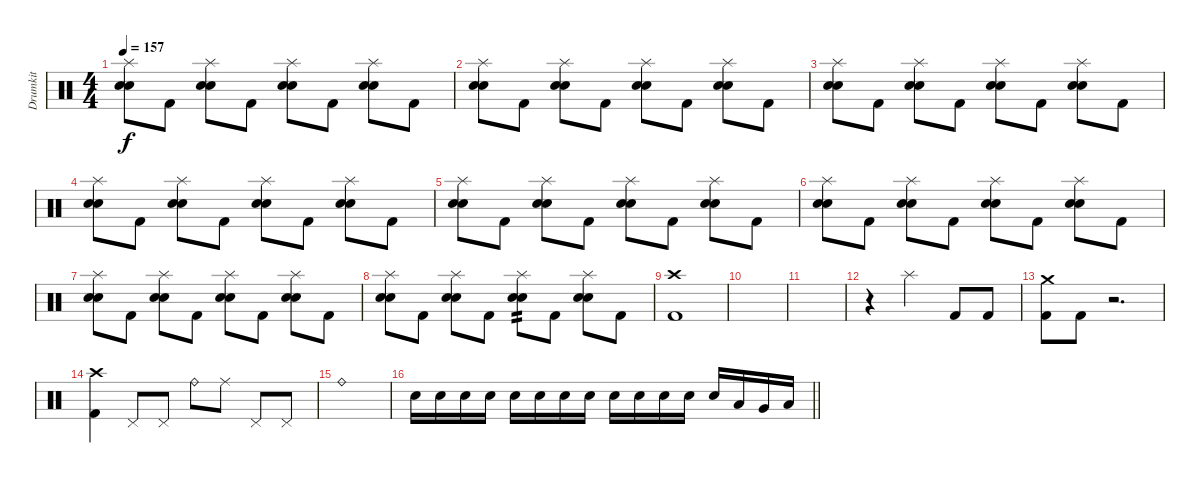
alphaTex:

\track ("Drumkit" "Drumkit") {instrument percussion}
\staff {score}
\articulation defaults
\ts (4 4)
\tempo 157
\clef neutral
\ks c
("Splash (hit)" "Electric Snare (hit)" "Snare (hit) 2").8{dy f} "Kick (hit) 2".8 ("Splash (hit)" "Electric Snare (hit)" "Snare (hit) 2").8 "Kick (hit) 2".8 ("Splash (hit)" "Electric Snare (hit)" "Snare (hit) 2").8 "Kick (hit) 2".8 ("Splash (hit)" "Electric Snare (hit)" "Snare (hit) 2").8 "Kick (hit) 2".8 |
("Splash (hit)" "Electric Snare (hit)" "Snare (hit) 2").8 "Kick (hit) 2".8 ("Splash (hit)" "Electric Snare (hit)" "Snare (hit) 2").8 "Kick (hit) 2".8 ("Splash (hit)" "Electric Snare (hit)" "Snare (hit) 2").8 "Kick (hit) 2".8 ("Splash (hit)" "Electric Snare (hit)" "Snare (hit) 2").8 "Kick (hit) 2".8 |
("Splash (hit)" "Electric Snare (hit)" "Snare (hit) 2").8 "Kick (hit) 2".8 ("Splash (hit)" "Electric Snare (hit)" "Snare (hit) 2").8 "Kick (hit) 2".8 ("Splash (hit)" "Electric Snare (hit)" "Snare (hit) 2").8 "Kick (hit) 2".8 ("Splash (hit)" "Electric Snare (hit)" "Snare (hit) 2").8 "Kick (hit) 2".8 |
("Splash (hit)" "Electric Snare (hit)" "Snare (hit) 2").8 "Kick (hit) 2".8 ("Splash (hit)" "Electric Snare (hit)" "Snare (hit) 2").8 "Kick (hit) 2".8 ("Splash (hit)" "Electric Snare (hit)" "Snare (hit) 2").8 "Kick (hit) 2".8 ("Splash (hit)" "Electric Snare (hit)" "Snare (hit) 2").8 "Kick (hit) 2".8 |
("Splash (hit)" "Electric Snare (hit)" "Snare (hit) 2").8 "Kick (hit) 2".8 ("Splash (hit)" "Electric Snare (hit)" "Snare (hit) 2").8 "Kick (hit) 2".8 ("Splash (hit)" "Electric Snare (hit)" "Snare (hit) 2").8 "Kick (hit) 2".8 ("Splash (hit)" "Electric Snare (hit)" "Snare (hit) 2").8 "Kick (hit) 2".8 |
("Splash (hit)" "Electric Snare (hit)" "Snare (hit) 2").8 "Kick (hit) 2".8 ("Splash (hit)" "Electric Snare (hit)" "Snare (hit) 2").8 "Kick (hit) 2".8 ("Splash (hit)" "Electric Snare (hit)" "Snare (hit) 2").8 "Kick (hit) 2".8 ("Splash (hit)" "Electric Snare (hit)" "Snare (hit) 2").8 "Kick (hit) 2".8 |
("Splash (hit)" "Electric Snare (hit)" "Snare (hit) 2").8 "Kick (hit) 2".8 ("Splash (hit)" "Electric Snare (hit)" "Snare (hit) 2").8 "Kick (hit) 2".8 ("Splash (hit)" "Electric Snare (hit)" "Snare (hit) 2").8 "Kick (hit) 2".8 ("Splash (hit)" "Electric Snare (hit)" "Snare (hit) 2").8 "Kick (hit) 2".8 |
("Splash (hit)" "Electric Snare (hit)" "Snare (hit) 2").8 "Kick (hit) 2".8 ("Splash (hit)" "Electric Snare (hit)" "Snare (hit) 2").8 "Kick (hit) 2".8 ("Splash (hit)" "Electric Snare (hit)" "Snare (hit) 2").8{tp 2} "Kick (hit) 2".8 ("Splash (hit)" "Electric Snare (hit)" "Snare (hit) 2").8 "Kick (hit) 2".8 |
("Crash high (hit)" "Kick (hit) 2").1 |
|
|
r.4 "Splash (hit)".2 "Kick (hit) 2".8 "Kick (hit) 2".8 |
("Crash medium (hit)" "Kick (hit) 2").8 "Kick (hit) 2".8 r.2{d} |
("Crash high (hit)" "Kick (hit) 2").4 "Pedal Hi-Hat (hit)".8 "Pedal Hi-Hat (hit)".8 "Ride (bell)".8 "Ride (middle)".8 "Pedal Hi-Hat (hit)".8 "Pedal Hi-Hat (hit)".8 |
"Ride (bell)".1 |
\barLineRight lightlight "Electric Snare (hit)".16 "Electric Snare (hit)".16 "Electric Snare (hit)".16 "Electric Snare (hit)".16 "Electric Snare (hit)".16 "Electric Snare (hit)".16 "Electric Snare (hit)".16 "Electric Snare (hit)".16 "Electric Snare (hit)".16 "Electric Snare (hit)".16 "Electric Snare (hit)".16 "Electric Snare (hit)".16 "Electric Snare (hit)".16 "Low Tom (hit)".16 "Very Low Tom (hit)".16 "Low Floor Tom (hit)".16
